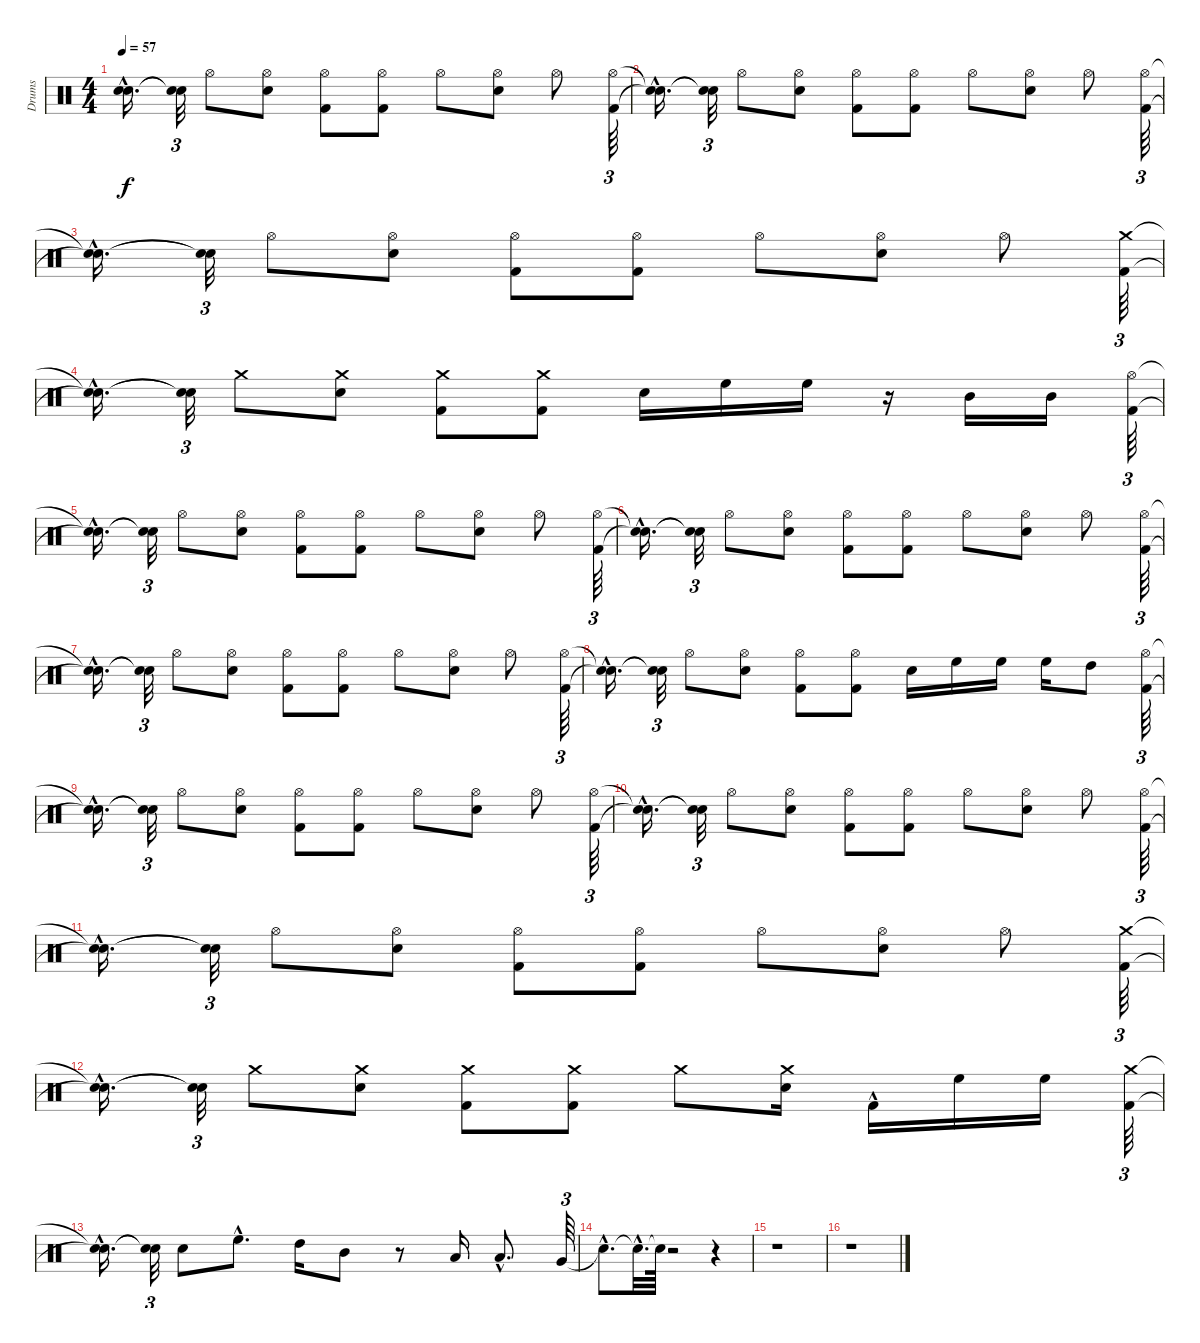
\track ("Drums" "Drums") {instrument percussion}
\staff {score}
\articulation defaults
\ts (4 4)
\tempo 57
\clef neutral
\ks c
("Snare (hit)"{hac t} "Snare (hit)"{hac t}).16{d dy f} ("Snare (hit)"{t} "Snare (hit)"{t}).32{tu (3 2)} "Hi-Hat (open)".8 ("Snare (hit) 2" "Hi-Hat (open)").8 ("Kick (hit) 2" "Hi-Hat (open)").8 ("Kick (hit) 2" "Hi-Hat (open)").8 "Hi-Hat (open)".8 ("Snare (hit) 2" "Hi-Hat (open)").8 "Hi-Hat (open)".8 ("Kick (hit) 2" "Hi-Hat (open)").64{tu (3 2)} |
("Snare (hit)"{hac t} "Snare (hit)"{hac t}).16{d} ("Snare (hit)"{t} "Snare (hit)"{t}).32{tu (3 2)} "Hi-Hat (open)".8 ("Snare (hit) 2" "Hi-Hat (open)").8 ("Kick (hit) 2" "Hi-Hat (open)").8 ("Kick (hit) 2" "Hi-Hat (open)").8 "Hi-Hat (open)".8 ("Snare (hit) 2" "Hi-Hat (open)").8 "Hi-Hat (open)".8 ("Kick (hit) 2" "Hi-Hat (open)").64{tu (3 2)} |
("Snare (hit)"{hac t} "Snare (hit)"{hac t}).16{d} ("Snare (hit)"{t} "Snare (hit)"{t}).32{tu (3 2)} "Hi-Hat (open)".8 ("Snare (hit) 2" "Hi-Hat (open)").8 ("Kick (hit) 2" "Hi-Hat (open)").8 ("Kick (hit) 2" "Hi-Hat (open)").8 "Hi-Hat (open)".8 ("Snare (hit) 2" "Hi-Hat (open)").8 "Hi-Hat (open)".8 ("Kick (hit) 2" "Crash medium (hit)").64{tu (3 2)} |
("Snare (hit)"{hac t} "Snare (hit)"{hac t}).16{d} ("Snare (hit)"{t} "Snare (hit)"{t}).32{tu (3 2)} "Crash medium (hit)".8 ("Snare (hit) 2" "Crash medium (hit)").8 ("Kick (hit) 2" "Crash medium (hit)").8 ("Kick (hit) 2" "Crash medium (hit)").8 "Snare (hit) 2".16 "High Floor Tom (hit)".16 "High Floor Tom (hit)".16 r.16 "Mid Tom (hit)".16 "Mid Tom (hit)".16 ("Kick (hit) 2" "Hi-Hat (open)").64{tu (3 2)} |
("Snare (hit)"{hac t} "Snare (hit)"{hac t}).16{d} ("Snare (hit)"{t} "Snare (hit)"{t}).32{tu (3 2)} "Hi-Hat (open)".8 ("Snare (hit) 2" "Hi-Hat (open)").8 ("Kick (hit) 2" "Hi-Hat (open)").8 ("Kick (hit) 2" "Hi-Hat (open)").8 "Hi-Hat (open)".8 ("Snare (hit) 2" "Hi-Hat (open)").8 "Hi-Hat (open)".8 ("Kick (hit) 2" "Hi-Hat (open)").64{tu (3 2)} |
("Snare (hit)"{hac t} "Snare (hit)"{hac t}).16{d} ("Snare (hit)"{t} "Snare (hit)"{t}).32{tu (3 2)} "Hi-Hat (open)".8 ("Snare (hit) 2" "Hi-Hat (open)").8 ("Kick (hit) 2" "Hi-Hat (open)").8 ("Kick (hit) 2" "Hi-Hat (open)").8 "Hi-Hat (open)".8 ("Snare (hit) 2" "Hi-Hat (open)").8 "Hi-Hat (open)".8 ("Kick (hit) 2" "Hi-Hat (open)").64{tu (3 2)} |
("Snare (hit)"{hac t} "Snare (hit)"{hac t}).16{d} ("Snare (hit)"{t} "Snare (hit)"{t}).32{tu (3 2)} "Hi-Hat (open)".8 ("Snare (hit) 2" "Hi-Hat (open)").8 ("Kick (hit) 2" "Hi-Hat (open)").8 ("Kick (hit) 2" "Hi-Hat (open)").8 "Hi-Hat (open)".8 ("Snare (hit) 2" "Hi-Hat (open)").8 "Hi-Hat (open)".8 ("Kick (hit) 2" "Hi-Hat (open)").64{tu (3 2)} |
("Snare (hit)"{hac t} "Snare (hit)"{hac t}).16{d} ("Snare (hit)"{t} "Snare (hit)"{t}).32{tu (3 2)} "Hi-Hat (open)".8 ("Snare (hit) 2" "Hi-Hat (open)").8 ("Kick (hit) 2" "Hi-Hat (open)").8 ("Hi-Hat (open)" "Kick (hit) 2").8 "Snare (hit) 2".16 "High Floor Tom (hit)".16 "High Floor Tom (hit)".16 "High Floor Tom (hit)".16 "High Tom (hit)".8 ("Kick (hit) 2" "Hi-Hat (open)").64{tu (3 2)} |
("Snare (hit)"{hac t} "Snare (hit)"{hac t}).16{d} ("Snare (hit)"{t} "Snare (hit)"{t}).32{tu (3 2)} "Hi-Hat (open)".8 ("Snare (hit) 2" "Hi-Hat (open)").8 ("Kick (hit) 2" "Hi-Hat (open)").8 ("Kick (hit) 2" "Hi-Hat (open)").8 "Hi-Hat (open)".8 ("Snare (hit) 2" "Hi-Hat (open)").8 "Hi-Hat (open)".8 ("Kick (hit) 2" "Hi-Hat (open)").64{tu (3 2)} |
("Snare (hit)"{hac t} "Snare (hit)"{hac t}).16{d} ("Snare (hit)"{t} "Snare (hit)"{t}).32{tu (3 2)} "Hi-Hat (open)".8 ("Snare (hit) 2" "Hi-Hat (open)").8 ("Kick (hit) 2" "Hi-Hat (open)").8 ("Kick (hit) 2" "Hi-Hat (open)").8 "Hi-Hat (open)".8 ("Snare (hit) 2" "Hi-Hat (open)").8 "Hi-Hat (open)".8 ("Kick (hit) 2" "Hi-Hat (open)").64{tu (3 2)} |
("Snare (hit)"{hac t} "Snare (hit)"{hac t}).16{d} ("Snare (hit)"{t} "Snare (hit)"{t}).32{tu (3 2)} "Hi-Hat (open)".8 ("Snare (hit) 2" "Hi-Hat (open)").8 ("Kick (hit) 2" "Hi-Hat (open)").8 ("Kick (hit) 2" "Hi-Hat (open)").8 "Hi-Hat (open)".8 ("Snare (hit) 2" "Hi-Hat (open)").8 "Hi-Hat (open)".8 ("Crash medium (hit)" "Kick (hit) 2").64{tu (3 2)} |
("Snare (hit)"{hac t} "Snare (hit)"{hac t}).16{d} ("Snare (hit)"{t} "Snare (hit)"{t}).32{tu (3 2)} "Crash medium (hit)".8 ("Crash medium (hit)" "Snare (hit) 2").8 ("Crash medium (hit)" "Kick (hit) 2").8 ("Crash medium (hit)" "Kick (hit) 2").8 "Crash medium (hit)".8 ("Crash medium (hit)" "Snare (hit) 2").16 "Kick (hit) 2"{hac}.16 "High Floor Tom (hit)".16 "High Floor Tom (hit)".16 ("Crash medium (hit)" "Kick (hit) 2").64{tu (3 2)} |
("Snare (hit)"{hac t} "Snare (hit)"{hac t}).16{d} ("Snare (hit)"{t} "Snare (hit)"{t}).32{tu (3 2)} "Snare (hit) 2".8 "High Floor Tom (hit)"{hac}.8{d} "High Tom (hit)".16 "Mid Tom (hit)".8 r.8 "Low Tom (hit)".16 "Low Tom (hit)"{hac}.8{d} "Very Low Tom (hit)".64{tu (3 2)} |
"Snare (hit)"{hac t}.8{d} "Snare (hit)"{hac t}.32{d} "Snare (hit)"{t}.64 r.2 r.4 |
r.1 |
r.1
